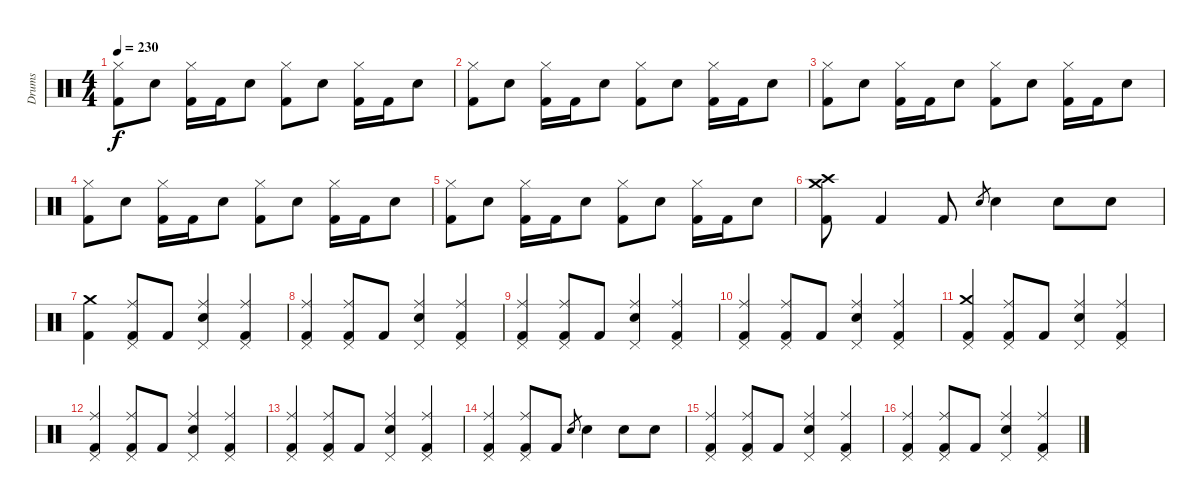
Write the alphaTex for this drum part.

\track ("Drums" "Drums") {instrument percussion}
\staff {score}
\articulation defaults
\ts (4 4)
\tempo 230
\clef neutral
\ks c
("Hi-Hat (closed)" "Kick (hit) 2").8{dy f} "Electric Snare (hit)".8 ("Hi-Hat (closed)" "Kick (hit) 2").16 "Kick (hit) 2".16 "Electric Snare (hit)".8 ("Hi-Hat (closed)" "Kick (hit) 2").8 "Electric Snare (hit)".8 ("Hi-Hat (closed)" "Kick (hit) 2").16 "Kick (hit) 2".16 "Electric Snare (hit)".8 |
("Hi-Hat (closed)" "Kick (hit) 2").8 "Electric Snare (hit)".8 ("Hi-Hat (closed)" "Kick (hit) 2").16 "Kick (hit) 2".16 "Electric Snare (hit)".8 ("Hi-Hat (closed)" "Kick (hit) 2").8 "Electric Snare (hit)".8 ("Hi-Hat (closed)" "Kick (hit) 2").16 "Kick (hit) 2".16 "Electric Snare (hit)".8 |
("Hi-Hat (closed)" "Kick (hit) 2").8 "Electric Snare (hit)".8 ("Hi-Hat (closed)" "Kick (hit) 2").16 "Kick (hit) 2".16 "Electric Snare (hit)".8 ("Hi-Hat (closed)" "Kick (hit) 2").8 "Electric Snare (hit)".8 ("Hi-Hat (closed)" "Kick (hit) 2").16 "Kick (hit) 2".16 "Electric Snare (hit)".8 |
("Hi-Hat (closed)" "Kick (hit) 2").8 "Electric Snare (hit)".8 ("Hi-Hat (closed)" "Kick (hit) 2").16 "Kick (hit) 2".16 "Electric Snare (hit)".8 ("Hi-Hat (closed)" "Kick (hit) 2").8 "Electric Snare (hit)".8 ("Hi-Hat (closed)" "Kick (hit) 2").16 "Kick (hit) 2".16 "Electric Snare (hit)".8 |
("Hi-Hat (closed)" "Kick (hit) 2").8 "Electric Snare (hit)".8 ("Hi-Hat (closed)" "Kick (hit) 2").16 "Kick (hit) 2".16 "Electric Snare (hit)".8 ("Hi-Hat (closed)" "Kick (hit) 2").8 "Electric Snare (hit)".8 ("Hi-Hat (closed)" "Kick (hit) 2").16 "Kick (hit) 2".16 "Electric Snare (hit)".8 |
("Crash high (hit)" "Crash medium (hit)" "Kick (hit) 2").8 "Kick (hit) 2".4 "Kick (hit) 2".8 "Electric Snare (hit)".8{gr} "Electric Snare (hit)".4 "Electric Snare (hit)".8 "Electric Snare (hit)".8 |
("Crash medium (hit)" "Kick (hit) 2").4 ("Ride (middle)" "Pedal Hi-Hat (hit)" "Kick (hit) 2").8 "Kick (hit) 2".8 ("Ride (middle)" "Pedal Hi-Hat (hit)" "Electric Snare (hit)").4 ("Ride (middle)" "Pedal Hi-Hat (hit)" "Kick (hit) 2").4 |
("Ride (middle)" "Pedal Hi-Hat (hit)" "Kick (hit) 2").4 ("Ride (middle)" "Pedal Hi-Hat (hit)" "Kick (hit) 2").8 "Kick (hit) 2".8 ("Ride (middle)" "Pedal Hi-Hat (hit)" "Electric Snare (hit)").4 ("Ride (middle)" "Pedal Hi-Hat (hit)" "Kick (hit) 2").4 |
("Ride (middle)" "Pedal Hi-Hat (hit)" "Kick (hit) 2").4 ("Ride (middle)" "Pedal Hi-Hat (hit)" "Kick (hit) 2").8 "Kick (hit) 2".8 ("Ride (middle)" "Pedal Hi-Hat (hit)" "Electric Snare (hit)").4 ("Ride (middle)" "Pedal Hi-Hat (hit)" "Kick (hit) 2").4 |
("Ride (middle)" "Pedal Hi-Hat (hit)" "Kick (hit) 2").4 ("Ride (middle)" "Pedal Hi-Hat (hit)" "Kick (hit) 2").8 "Kick (hit) 2".8 ("Ride (middle)" "Pedal Hi-Hat (hit)" "Electric Snare (hit)").4 ("Ride (middle)" "Pedal Hi-Hat (hit)" "Kick (hit) 2").4 |
("Crash medium (hit)" "Pedal Hi-Hat (hit)" "Kick (hit) 2").4 ("Ride (middle)" "Pedal Hi-Hat (hit)" "Kick (hit) 2").8 "Kick (hit) 2".8 ("Ride (middle)" "Pedal Hi-Hat (hit)" "Electric Snare (hit)").4 ("Ride (middle)" "Pedal Hi-Hat (hit)" "Kick (hit) 2").4 |
("Ride (middle)" "Pedal Hi-Hat (hit)" "Kick (hit) 2").4 ("Ride (middle)" "Pedal Hi-Hat (hit)" "Kick (hit) 2").8 "Kick (hit) 2".8 ("Ride (middle)" "Pedal Hi-Hat (hit)" "Electric Snare (hit)").4 ("Ride (middle)" "Pedal Hi-Hat (hit)" "Kick (hit) 2").4 |
("Ride (middle)" "Pedal Hi-Hat (hit)" "Kick (hit) 2").4 ("Ride (middle)" "Pedal Hi-Hat (hit)" "Kick (hit) 2").8 "Kick (hit) 2".8 ("Ride (middle)" "Pedal Hi-Hat (hit)" "Electric Snare (hit)").4 ("Ride (middle)" "Pedal Hi-Hat (hit)" "Kick (hit) 2").4 |
("Ride (middle)" "Pedal Hi-Hat (hit)" "Kick (hit) 2").4 ("Ride (middle)" "Pedal Hi-Hat (hit)" "Kick (hit) 2").8 "Kick (hit) 2".8 "Electric Snare (hit)".8{gr} "Electric Snare (hit)".4 "Electric Snare (hit)".8 "Electric Snare (hit)".8 |
("Ride (middle)" "Pedal Hi-Hat (hit)" "Kick (hit) 2").4 ("Ride (middle)" "Pedal Hi-Hat (hit)" "Kick (hit) 2").8 "Kick (hit) 2".8 ("Ride (middle)" "Pedal Hi-Hat (hit)" "Electric Snare (hit)").4 ("Ride (middle)" "Pedal Hi-Hat (hit)" "Kick (hit) 2").4 |
("Ride (middle)" "Pedal Hi-Hat (hit)" "Kick (hit) 2").4 ("Ride (middle)" "Pedal Hi-Hat (hit)" "Kick (hit) 2").8 "Kick (hit) 2".8 ("Ride (middle)" "Pedal Hi-Hat (hit)" "Electric Snare (hit)").4 ("Ride (middle)" "Pedal Hi-Hat (hit)" "Kick (hit) 2").4
